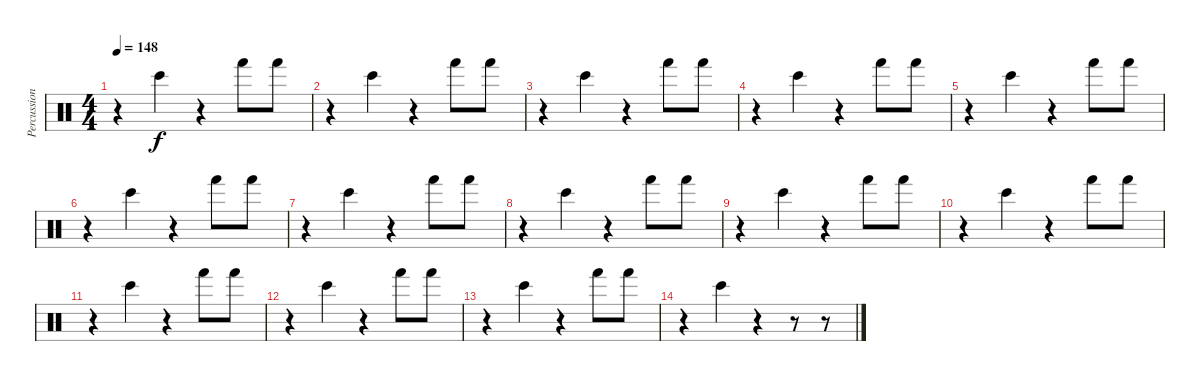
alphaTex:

\track ("Percussions" "Percussion") {instrument percussion}
\staff {score}
\articulation defaults
\ts (4 4)
\tempo 148
\clef neutral
\ks c
r.4{dy f} "Bongo High (hit)".4 r.4 "Hand (hit)".8 "Hand (hit)".8 |
r.4 "Bongo High (hit)".4 r.4 "Hand (hit)".8 "Hand (hit)".8 |
r.4 "Bongo High (hit)".4 r.4 "Hand (hit)".8 "Hand (hit)".8 |
r.4 "Bongo High (hit)".4 r.4 "Hand (hit)".8 "Hand (hit)".8 |
r.4 "Bongo High (hit)".4 r.4 "Hand (hit)".8 "Hand (hit)".8 |
r.4 "Bongo High (hit)".4 r.4 "Hand (hit)".8 "Hand (hit)".8 |
r.4 "Bongo High (hit)".4 r.4 "Hand (hit)".8 "Hand (hit)".8 |
r.4 "Bongo High (hit)".4 r.4 "Hand (hit)".8 "Hand (hit)".8 |
r.4 "Bongo High (hit)".4 r.4 "Hand (hit)".8 "Hand (hit)".8 |
r.4 "Bongo High (hit)".4 r.4 "Hand (hit)".8 "Hand (hit)".8 |
r.4 "Bongo High (hit)".4 r.4 "Hand (hit)".8 "Hand (hit)".8 |
r.4 "Bongo High (hit)".4 r.4 "Hand (hit)".8 "Hand (hit)".8 |
r.4 "Bongo High (hit)".4 r.4 "Hand (hit)".8 "Hand (hit)".8 |
r.4 "Bongo High (hit)".4 r.4 r.8 r.8
